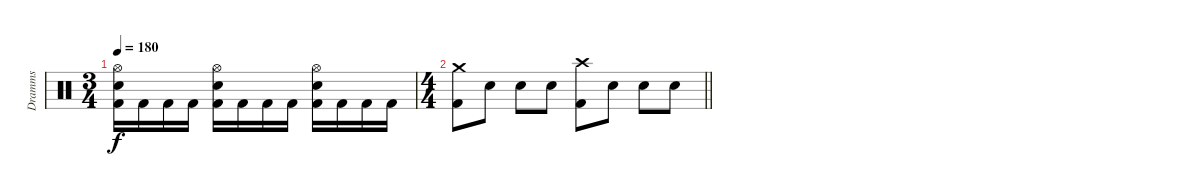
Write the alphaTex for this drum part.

\track ("Dramms" "Dramms") {instrument percussion}
\staff {score}
\articulation defaults
\ts (3 4)
\tempo 180
\clef neutral
\ks c
("Hi-Hat (open)" "Electric Snare (hit)" "Kick (hit) 2").16{dy f} "Kick (hit) 2".16 "Kick (hit) 2".16 "Kick (hit) 2".16 ("Hi-Hat (open)" "Electric Snare (hit)" "Kick (hit) 2").16 "Kick (hit) 2".16 "Kick (hit) 2".16 "Kick (hit) 2".16 ("Hi-Hat (open)" "Electric Snare (hit)" "Kick (hit) 2").16 "Kick (hit) 2".16 "Kick (hit) 2".16 "Kick (hit) 2".16 |
\ts (4 4)
\barLineRight lightlight
("Crash medium (hit)" "Kick (hit) 2").8 "Electric Snare (hit)".8 "Electric Snare (hit)".8 "Electric Snare (hit)".8 ("Crash high (hit)" "Kick (hit) 2").8 "Electric Snare (hit)".8 "Electric Snare (hit)".8 "Electric Snare (hit)".8
